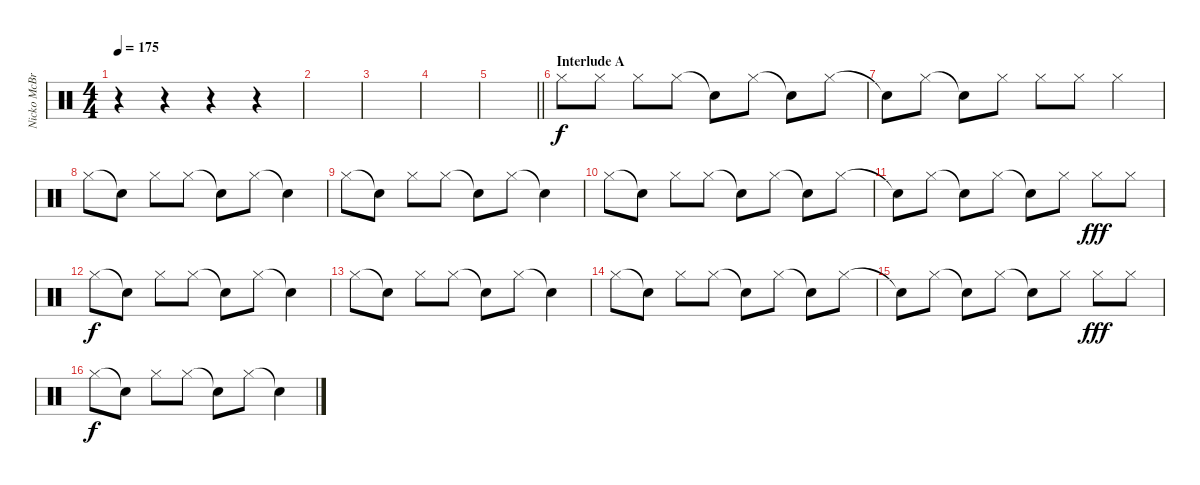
\track ("Nicko McBrian" "Nicko McBr") {instrument percussion}
\staff {score}
\articulation defaults
\ts (4 4)
\tempo 175
\clef neutral
\ks c
r.4{dy fff} r.4 r.4 r.4 |
|
|
|
\barLineRight lightlight
|
\section ("" "Interlude A")
"Hi-Hat (closed)".8{dy f} "Hi-Hat (closed)".8 "Hi-Hat (closed)".8 "Hi-Hat (closed)".8 "Snare (hit)"{t}.8 "Hi-Hat (closed)".8 "Snare (hit)"{t}.8 "Hi-Hat (closed)".8 |
"Snare (hit)"{t}.8 "Hi-Hat (closed)".8 "Snare (hit)"{t}.8 "Hi-Hat (closed)".8 "Hi-Hat (closed)".8 "Hi-Hat (closed)".8 "Hi-Hat (closed)".4 |
"Hi-Hat (closed)".8 "Snare (hit)"{t}.8 "Hi-Hat (closed)".8 "Hi-Hat (closed)".8 "Snare (hit)"{t}.8 "Hi-Hat (closed)".8 "Snare (hit)"{t}.4 |
"Hi-Hat (closed)".8 "Snare (hit)"{t}.8 "Hi-Hat (closed)".8 "Hi-Hat (closed)".8 "Snare (hit)"{t}.8 "Hi-Hat (closed)".8 "Snare (hit)"{t}.4 |
"Hi-Hat (closed)".8 "Snare (hit)"{t}.8 "Hi-Hat (closed)".8 "Hi-Hat (closed)".8 "Snare (hit)"{t}.8 "Hi-Hat (closed)".8 "Snare (hit)"{t}.8 "Hi-Hat (closed)".8 |
"Snare (hit)"{t}.8 "Hi-Hat (closed)".8 "Snare (hit)"{t}.8 "Hi-Hat (closed)".8 "Snare (hit)"{t}.8 "Hi-Hat (closed)".8 "Hi-Hat (closed)".8{dy fff} "Hi-Hat (closed)".8 |
"Hi-Hat (closed)".8{dy f} "Snare (hit)"{t}.8 "Hi-Hat (closed)".8 "Hi-Hat (closed)".8 "Snare (hit)"{t}.8 "Hi-Hat (closed)".8 "Snare (hit)"{t}.4 |
"Hi-Hat (closed)".8 "Snare (hit)"{t}.8 "Hi-Hat (closed)".8 "Hi-Hat (closed)".8 "Snare (hit)"{t}.8 "Hi-Hat (closed)".8 "Snare (hit)"{t}.4 |
"Hi-Hat (closed)".8 "Snare (hit)"{t}.8 "Hi-Hat (closed)".8 "Hi-Hat (closed)".8 "Snare (hit)"{t}.8 "Hi-Hat (closed)".8 "Snare (hit)"{t}.8 "Hi-Hat (closed)".8 |
"Snare (hit)"{t}.8 "Hi-Hat (closed)".8 "Snare (hit)"{t}.8 "Hi-Hat (closed)".8 "Snare (hit)"{t}.8 "Hi-Hat (closed)".8 "Hi-Hat (closed)".8{dy fff} "Hi-Hat (closed)".8 |
"Hi-Hat (closed)".8{dy f} "Snare (hit)"{t}.8 "Hi-Hat (closed)".8 "Hi-Hat (closed)".8 "Snare (hit)"{t}.8 "Hi-Hat (closed)".8 "Snare (hit)"{t}.4
